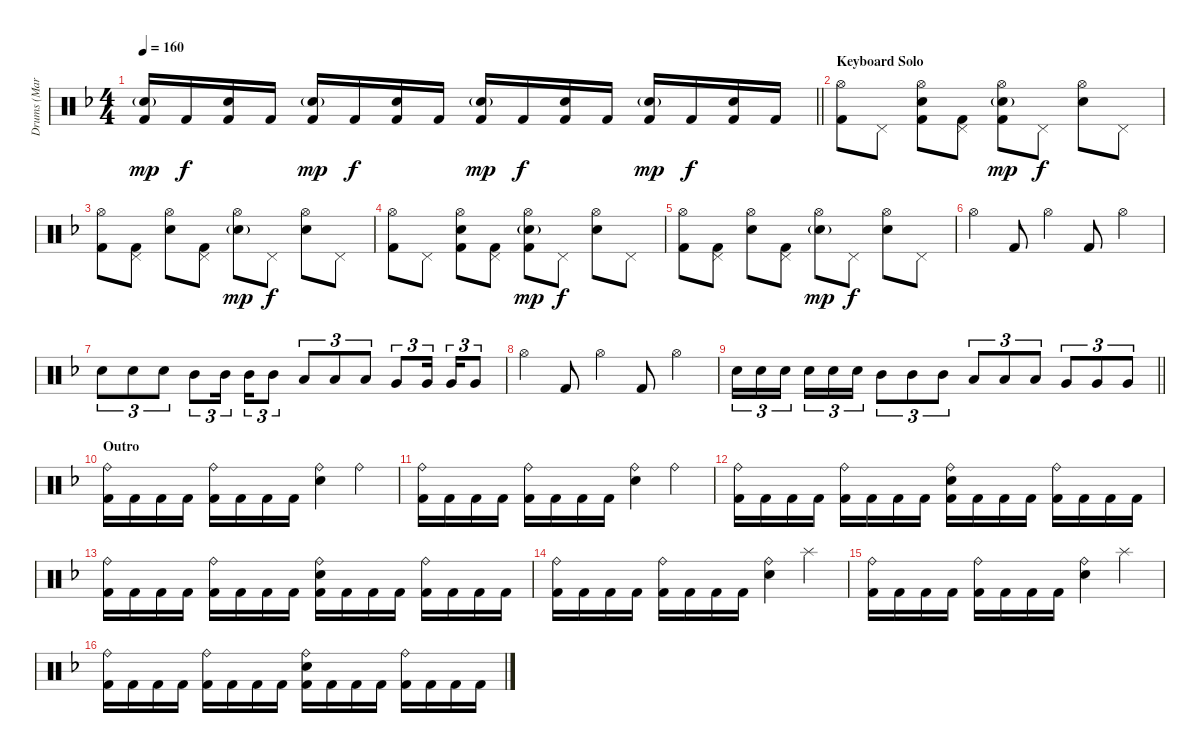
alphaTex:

\track ("Drums (Mark)" "Drums (Mar") {instrument percussion}
\staff {score}
\articulation defaults
\ts (4 4)
\tempo 160
\clef neutral
\barLineRight lightlight
\ks dminor
("Electric Snare (hit)"{g} "Kick (hit) 2").16{dy mp} "Kick (hit) 2".16{dy f} ("Electric Snare (hit)" "Kick (hit) 2").16 "Kick (hit) 2".16 ("Electric Snare (hit)"{g} "Kick (hit) 2").16{dy mp} "Kick (hit) 2".16{dy f} ("Electric Snare (hit)" "Kick (hit) 2").16 "Kick (hit) 2".16 ("Electric Snare (hit)"{g} "Kick (hit) 2").16{dy mp} "Kick (hit) 2".16{dy f} ("Electric Snare (hit)" "Kick (hit) 2").16 "Kick (hit) 2".16 ("Electric Snare (hit)"{g} "Kick (hit) 2").16{dy mp} "Kick (hit) 2".16{dy f} ("Electric Snare (hit)" "Kick (hit) 2").16 "Kick (hit) 2".16 |
\section ("" "Keyboard Solo")
("Hi-Hat (open)" "Kick (hit) 2").8 "Pedal Hi-Hat (hit)".8 ("Hi-Hat (open)" "Electric Snare (hit)" "Kick (hit) 2").8 ("Pedal Hi-Hat (hit)" "Kick (hit) 2").8 ("Hi-Hat (open)" "Electric Snare (hit)"{g} "Kick (hit) 2").8{dy mp} "Pedal Hi-Hat (hit)".8{dy f} ("Hi-Hat (open)" "Electric Snare (hit)").8 "Pedal Hi-Hat (hit)".8 |
("Hi-Hat (open)" "Kick (hit) 2").8 ("Pedal Hi-Hat (hit)" "Kick (hit) 2").8 ("Hi-Hat (open)" "Electric Snare (hit)").8 ("Pedal Hi-Hat (hit)" "Kick (hit) 2").8 ("Hi-Hat (open)" "Electric Snare (hit)"{g}).8{dy mp} "Pedal Hi-Hat (hit)".8{dy f} ("Hi-Hat (open)" "Electric Snare (hit)").8 "Pedal Hi-Hat (hit)".8 |
("Hi-Hat (open)" "Kick (hit) 2").8 "Pedal Hi-Hat (hit)".8 ("Hi-Hat (open)" "Electric Snare (hit)" "Kick (hit) 2").8 ("Pedal Hi-Hat (hit)" "Kick (hit) 2").8 ("Hi-Hat (open)" "Electric Snare (hit)"{g} "Kick (hit) 2").8{dy mp} "Pedal Hi-Hat (hit)".8{dy f} ("Hi-Hat (open)" "Electric Snare (hit)").8 "Pedal Hi-Hat (hit)".8 |
("Hi-Hat (open)" "Kick (hit) 2").8 ("Pedal Hi-Hat (hit)" "Kick (hit) 2").8 ("Hi-Hat (open)" "Electric Snare (hit)").8 ("Pedal Hi-Hat (hit)" "Kick (hit) 2").8 ("Hi-Hat (open)" "Electric Snare (hit)"{g}).8{dy mp} "Pedal Hi-Hat (hit)".8{dy f} ("Hi-Hat (open)" "Electric Snare (hit)").8 "Pedal Hi-Hat (hit)".8 |
"Hi-Hat (open)".4 "Kick (hit) 2".8 "Hi-Hat (open)".4 "Kick (hit) 2".8 "Hi-Hat (open)".4 |
"Snare (hit) 2".8{tu (3 2)} "Snare (hit) 2".8{tu (3 2)} "Snare (hit) 2".8{tu (3 2)} "Mid Tom (hit)".8{tu (3 2)} "Mid Tom (hit)".16{tu (3 2) beam splitsecondary} "Mid Tom (hit)".16{tu (3 2)} "Mid Tom (hit)".8{tu (3 2)} "Low Tom (hit)".8{tu (3 2)} "Low Tom (hit)".8{tu (3 2)} "Low Tom (hit)".8{tu (3 2)} "Very Low Tom (hit)".8{tu (3 2)} "Very Low Tom (hit)".16{tu (3 2) beam splitsecondary} "Very Low Tom (hit)".16{tu (3 2)} "Very Low Tom (hit)".8{tu (3 2)} |
"Hi-Hat (open)".4 "Kick (hit) 2".8 "Hi-Hat (open)".4 "Kick (hit) 2".8 "Hi-Hat (open)".4 |
\barLineRight lightlight "Snare (hit) 2".16{tu (3 2)} "Snare (hit) 2".16{tu (3 2)} "Snare (hit) 2".16{tu (3 2) beam splitsecondary} "Snare (hit) 2".16{tu (3 2)} "Snare (hit) 2".16{tu (3 2)} "Snare (hit) 2".16{tu (3 2)} "Mid Tom (hit)".8{tu (3 2)} "Mid Tom (hit)".8{tu (3 2)} "Mid Tom (hit)".8{tu (3 2)} "Low Tom (hit)".8{tu (3 2)} "Low Tom (hit)".8{tu (3 2)} "Low Tom (hit)".8{tu (3 2)} "Very Low Tom (hit)".8{tu (3 2)} "Very Low Tom (hit)".8{tu (3 2)} "Very Low Tom (hit)".8{tu (3 2)}
|
\section ("" "Outro")
("Ride (bell)" "Kick (hit) 2").16 "Kick (hit) 2".16 "Kick (hit) 2".16 "Kick (hit) 2".16 ("Ride (bell)" "Kick (hit) 2").16 "Kick (hit) 2".16 "Kick (hit) 2".16 "Kick (hit) 2".16 ("Ride (bell)" "Snare (hit) 2").4 "Ride (bell)".4 |
("Ride (bell)" "Kick (hit) 2").16 "Kick (hit) 2".16 "Kick (hit) 2".16 "Kick (hit) 2".16 ("Ride (bell)" "Kick (hit) 2").16 "Kick (hit) 2".16 "Kick (hit) 2".16 "Kick (hit) 2".16 ("Ride (bell)" "Snare (hit) 2").4 "Ride (bell)".4 |
("Ride (bell)" "Kick (hit) 2").16 "Kick (hit) 2".16 "Kick (hit) 2".16 "Kick (hit) 2".16 ("Ride (bell)" "Kick (hit) 2").16 "Kick (hit) 2".16 "Kick (hit) 2".16 "Kick (hit) 2".16 ("Ride (bell)" "Snare (hit) 2" "Kick (hit) 2").16 "Kick (hit) 2".16 "Kick (hit) 2".16 "Kick (hit) 2".16 ("Ride (bell)" "Kick (hit) 2").16 "Kick (hit) 2".16 "Kick (hit) 2".16 "Kick (hit) 2".16 |
("Ride (bell)" "Kick (hit) 2").16 "Kick (hit) 2".16 "Kick (hit) 2".16 "Kick (hit) 2".16 ("Ride (bell)" "Kick (hit) 2").16 "Kick (hit) 2".16 "Kick (hit) 2".16 "Kick (hit) 2".16 ("Ride (bell)" "Snare (hit) 2" "Kick (hit) 2").16 "Kick (hit) 2".16 "Kick (hit) 2".16 "Kick (hit) 2".16 ("Ride (bell)" "Kick (hit) 2").16 "Kick (hit) 2".16 "Kick (hit) 2".16 "Kick (hit) 2".16 |
("Ride (bell)" "Kick (hit) 2").16 "Kick (hit) 2".16 "Kick (hit) 2".16 "Kick (hit) 2".16 ("Ride (bell)" "Kick (hit) 2").16 "Kick (hit) 2".16 "Kick (hit) 2".16 "Kick (hit) 2".16 ("Ride (bell)" "Snare (hit) 2").4 "Splash (hit)".4 |
("Ride (bell)" "Kick (hit) 2").16 "Kick (hit) 2".16 "Kick (hit) 2".16 "Kick (hit) 2".16 ("Ride (bell)" "Kick (hit) 2").16 "Kick (hit) 2".16 "Kick (hit) 2".16 "Kick (hit) 2".16 ("Ride (bell)" "Snare (hit) 2").4 "Splash (hit)".4 |
("Ride (bell)" "Kick (hit) 2").16 "Kick (hit) 2".16 "Kick (hit) 2".16 "Kick (hit) 2".16 ("Ride (bell)" "Kick (hit) 2").16 "Kick (hit) 2".16 "Kick (hit) 2".16 "Kick (hit) 2".16 ("Ride (bell)" "Snare (hit) 2" "Kick (hit) 2").16 "Kick (hit) 2".16 "Kick (hit) 2".16 "Kick (hit) 2".16 ("Ride (bell)" "Kick (hit) 2").16 "Kick (hit) 2".16 "Kick (hit) 2".16 "Kick (hit) 2".16
